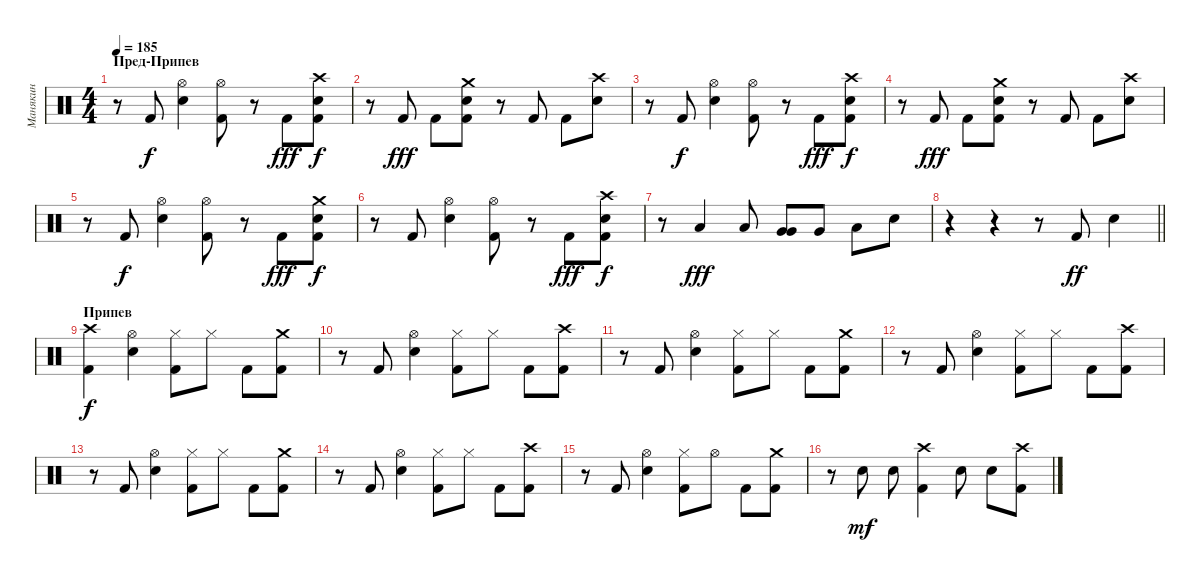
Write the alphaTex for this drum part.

\track ("Манякин" "Манякин") {instrument percussion}
\staff {score}
\articulation defaults
\ts (4 4)
\section ("" "Пред-Припев")
\tempo 185
\clef neutral
\ks c
r.8{dy fff} "Kick (hit) 2".8{dy f} ("Hi-Hat (open)" "Electric Snare (hit)").4 ("Hi-Hat (open)" "Kick (hit) 2").8 r.8 "Kick (hit) 2".8{dy fff} ("Crash high (hit)" "Electric Snare (hit)" "Kick (hit) 2").8{dy f} |
r.8 "Kick (hit) 2".8{dy fff} "Kick (hit) 2".8 ("Crash medium (hit)" "Electric Snare (hit)" "Kick (hit) 2").8 r.8 "Kick (hit) 2".8 "Kick (hit) 2".8 ("Crash high (hit)" "Electric Snare (hit)").8 |
r.8 "Kick (hit) 2".8{dy f} ("Hi-Hat (open)" "Electric Snare (hit)").4 ("Hi-Hat (open)" "Kick (hit) 2").8 r.8 "Kick (hit) 2".8{dy fff} ("Crash high (hit)" "Electric Snare (hit)" "Kick (hit) 2").8{dy f} |
r.8 "Kick (hit) 2".8{dy fff} "Kick (hit) 2".8 ("Crash medium (hit)" "Electric Snare (hit)" "Kick (hit) 2").8 r.8 "Kick (hit) 2".8 "Kick (hit) 2".8 ("Crash high (hit)" "Electric Snare (hit)").8 |
r.8 "Kick (hit) 2".8{dy f} ("Hi-Hat (open)" "Electric Snare (hit)").4 ("Hi-Hat (open)" "Kick (hit) 2").8 r.8 "Kick (hit) 2".8{dy fff} ("Crash medium (hit)" "Electric Snare (hit)" "Kick (hit) 2").8{dy f} |
r.8 "Kick (hit) 2".8 ("Hi-Hat (open)" "Electric Snare (hit)").4 ("Hi-Hat (open)" "Kick (hit) 2").8 r.8 "Kick (hit) 2".8{dy fff} ("Crash high (hit)" "Electric Snare (hit)" "Kick (hit) 2").8{dy f} |
r.8 "Low Tom (hit)".4{dy fff} "Low Tom (hit)".8 ("Very Low Tom (hit)" "Very Low Tom (hit)").8 "Very Low Tom (hit)".8 "Low Floor Tom (hit)".8 "Electric Snare (hit)".8 |
\barLineRight lightlight
r.4 r.4 r.8 "Kick (hit) 2".8{dy ff} "Electric Snare (hit)".4 |
\section ("" "Припев")
("Crash high (hit)" "Kick (hit) 2").4{dy f} ("Hi-Hat (open)" "Electric Snare (hit)").4 ("Hi-Hat (closed)" "Kick (hit) 2").8 "Hi-Hat (closed)".8 "Kick (hit) 2".8 ("Crash medium (hit)" "Kick (hit) 2").8 |
r.8 "Kick (hit) 2".8 ("Hi-Hat (open)" "Electric Snare (hit)").4 ("Hi-Hat (closed)" "Kick (hit) 2").8 "Hi-Hat (closed)".8 "Kick (hit) 2".8 ("Crash high (hit)" "Kick (hit) 2").8 |
r.8 "Kick (hit) 2".8 ("Hi-Hat (open)" "Electric Snare (hit)").4 ("Hi-Hat (closed)" "Kick (hit) 2").8 "Hi-Hat (closed)".8 "Kick (hit) 2".8 ("Crash medium (hit)" "Kick (hit) 2").8 |
r.8 "Kick (hit) 2".8 ("Hi-Hat (open)" "Electric Snare (hit)").4 ("Hi-Hat (closed)" "Kick (hit) 2").8 "Hi-Hat (closed)".8 "Kick (hit) 2".8 ("Crash high (hit)" "Kick (hit) 2").8 |
r.8 "Kick (hit) 2".8 ("Hi-Hat (open)" "Electric Snare (hit)").4 ("Hi-Hat (closed)" "Kick (hit) 2").8 "Hi-Hat (closed)".8 "Kick (hit) 2".8 ("Crash medium (hit)" "Kick (hit) 2").8 |
r.8 "Kick (hit) 2".8 ("Hi-Hat (open)" "Electric Snare (hit)").4 ("Hi-Hat (closed)" "Kick (hit) 2").8 "Hi-Hat (closed)".8 "Kick (hit) 2".8 ("Crash high (hit)" "Kick (hit) 2").8 |
r.8 "Kick (hit) 2".8 ("Hi-Hat (open)" "Electric Snare (hit)").4 ("Hi-Hat (closed)" "Kick (hit) 2").8 "Hi-Hat (open)".8 "Kick (hit) 2".8 ("Crash medium (hit)" "Kick (hit) 2").8 |
r.8 "Electric Snare (hit)".8{dy mf} "Electric Snare (hit)".8 ("Crash high (hit)" "Kick (hit) 2").4 "Electric Snare (hit)".8 "Electric Snare (hit)".8 ("Crash high (hit)" "Kick (hit) 2").8
